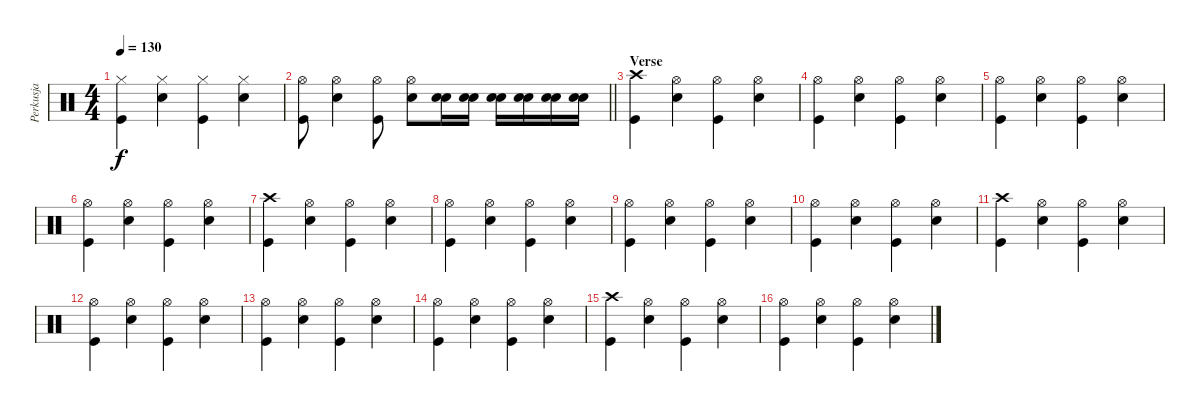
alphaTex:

\track ("Perkusja" "Perkusja") {instrument percussion}
\staff {score}
\articulation defaults
\ts (4 4)
\tempo 130
\clef neutral
\ks c
("Hi-Hat (closed)" "Kick (hit)").4{dy f} ("Hi-Hat (closed)" "Snare (hit) 2").4 ("Hi-Hat (closed)" "Kick (hit)").4 ("Hi-Hat (closed)" "Snare (hit) 2").4 |
\barLineRight lightlight
("Hi-Hat (open)" "Kick (hit)").8 ("Hi-Hat (open)" "Snare (hit) 2").4 ("Hi-Hat (open)" "Kick (hit)").8 ("Hi-Hat (open)" "Snare (hit) 2").8 ("Electric Snare (hit)" "Snare (hit) 2").16 ("Electric Snare (hit)" "Snare (hit) 2").16 ("Electric Snare (hit)" "Snare (hit) 2").16 ("Electric Snare (hit)" "Snare (hit) 2").16 ("Electric Snare (hit)" "Snare (hit) 2").16 ("Electric Snare (hit)" "Snare (hit) 2").16 |
\section ("" "Verse")
("Crash high (hit)" "Kick (hit)").4 ("Hi-Hat (open)" "Snare (hit) 2").4 ("Hi-Hat (open)" "Kick (hit)").4 ("Hi-Hat (open)" "Snare (hit) 2").4 |
("Hi-Hat (open)" "Kick (hit)").4 ("Hi-Hat (open)" "Snare (hit) 2").4 ("Hi-Hat (open)" "Kick (hit)").4 ("Hi-Hat (open)" "Snare (hit) 2").4 |
("Hi-Hat (open)" "Kick (hit)").4 ("Hi-Hat (open)" "Snare (hit) 2").4 ("Hi-Hat (open)" "Kick (hit)").4 ("Hi-Hat (open)" "Snare (hit) 2").4 |
("Hi-Hat (open)" "Kick (hit)").4 ("Hi-Hat (open)" "Snare (hit) 2").4 ("Hi-Hat (open)" "Kick (hit)").4 ("Hi-Hat (open)" "Snare (hit) 2").4 |
("Crash high (hit)" "Kick (hit)").4 ("Hi-Hat (open)" "Snare (hit) 2").4 ("Hi-Hat (open)" "Kick (hit)").4 ("Hi-Hat (open)" "Snare (hit) 2").4 |
("Hi-Hat (open)" "Kick (hit)").4 ("Hi-Hat (open)" "Snare (hit) 2").4 ("Hi-Hat (open)" "Kick (hit)").4 ("Hi-Hat (open)" "Snare (hit) 2").4 |
("Hi-Hat (open)" "Kick (hit)").4 ("Hi-Hat (open)" "Snare (hit) 2").4 ("Hi-Hat (open)" "Kick (hit)").4 ("Hi-Hat (open)" "Snare (hit) 2").4 |
("Hi-Hat (open)" "Kick (hit)").4 ("Hi-Hat (open)" "Snare (hit) 2").4 ("Hi-Hat (open)" "Kick (hit)").4 ("Hi-Hat (open)" "Snare (hit) 2").4 |
("Crash high (hit)" "Kick (hit)").4 ("Hi-Hat (open)" "Snare (hit) 2").4 ("Hi-Hat (open)" "Kick (hit)").4 ("Hi-Hat (open)" "Snare (hit) 2").4 |
("Hi-Hat (open)" "Kick (hit)").4 ("Hi-Hat (open)" "Snare (hit) 2").4 ("Hi-Hat (open)" "Kick (hit)").4 ("Hi-Hat (open)" "Snare (hit) 2").4 |
("Hi-Hat (open)" "Kick (hit)").4 ("Hi-Hat (open)" "Snare (hit) 2").4 ("Hi-Hat (open)" "Kick (hit)").4 ("Hi-Hat (open)" "Snare (hit) 2").4 |
("Hi-Hat (open)" "Kick (hit)").4 ("Hi-Hat (open)" "Snare (hit) 2").4 ("Hi-Hat (open)" "Kick (hit)").4 ("Hi-Hat (open)" "Snare (hit) 2").4 |
("Crash high (hit)" "Kick (hit)").4 ("Hi-Hat (open)" "Snare (hit) 2").4 ("Hi-Hat (open)" "Kick (hit)").4 ("Hi-Hat (open)" "Snare (hit) 2").4 |
("Hi-Hat (open)" "Kick (hit)").4 ("Hi-Hat (open)" "Snare (hit) 2").4 ("Hi-Hat (open)" "Kick (hit)").4 ("Hi-Hat (open)" "Snare (hit) 2").4
